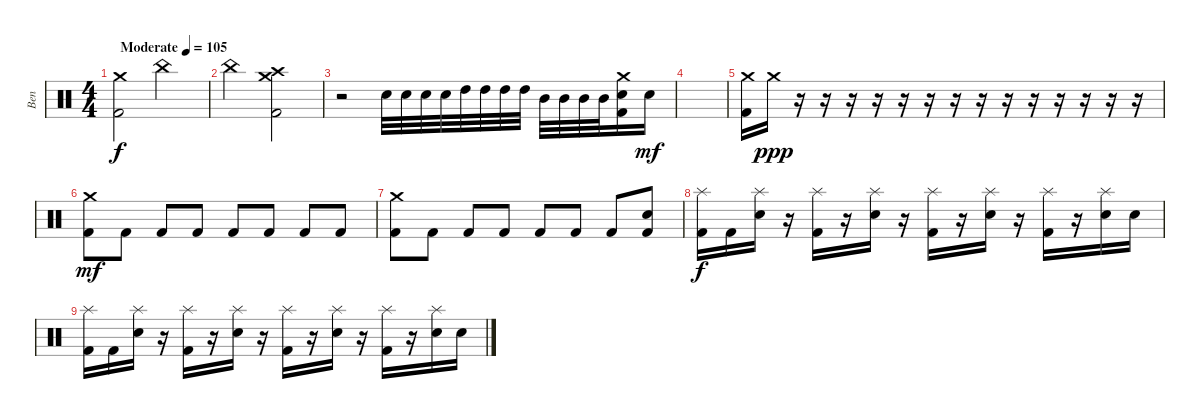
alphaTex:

\track ("Ben" "Ben") {instrument percussion}
\staff {score}
\articulation defaults
\ts (4 4)
\tempo (105 "Moderate")
\clef neutral
\ks c
("Crash medium (hit)" "Kick (hit) 2").2{dy f} "China (hit)".2 |
"China (hit)".2 ("Crash high (hit)" "Crash medium (hit)" "Kick (hit) 2").2 |
r.2 "Snare (hit) 2".32 "Snare (hit) 2".32 "Snare (hit) 2".32 "Snare (hit) 2".32 "High Tom (hit)".32 "High Tom (hit)".32 "High Tom (hit)".32 "High Tom (hit)".32 "Mid Tom (hit)".32 "Mid Tom (hit)".32 "Mid Tom (hit)".32 "Mid Tom (hit)".32 ("Crash medium (hit)" "Snare (hit) 2" "Kick (hit) 2").16 "Snare (hit)".16{dy mf} |
|
("Crash medium (hit)" "Kick (hit) 2").16 "Crash medium (hit)".16{dy ppp} r.16 r.16 r.16 r.16 r.16 r.16 r.16 r.16 r.16 r.16 r.16 r.16 r.16 r.16 |
("Crash medium (hit)" "Kick (hit) 2").8{dy mf} "Kick (hit) 2".8 "Kick (hit) 2".8 "Kick (hit) 2".8 "Kick (hit) 2".8 "Kick (hit) 2".8 "Kick (hit) 2".8 "Kick (hit) 2".8 |
("Crash medium (hit)" "Kick (hit) 2").8 "Kick (hit) 2".8 "Kick (hit) 2".8 "Kick (hit) 2".8 "Kick (hit) 2".8 "Kick (hit) 2".8 "Kick (hit) 2".8 ("Snare (hit) 2" "Kick (hit) 2").8 |
("Splash (hit)" "Kick (hit) 2").16{dy f} "Kick (hit) 2".16 ("Splash (hit)" "Snare (hit) 2").16 r.16 ("Splash (hit)" "Kick (hit) 2").16 r.16 ("Splash (hit)" "Snare (hit) 2").16 r.16 ("Splash (hit)" "Kick (hit) 2").16 r.16 ("Splash (hit)" "Snare (hit) 2").16 r.16 ("Splash (hit)" "Kick (hit) 2").16 r.16 ("Splash (hit)" "Snare (hit) 2").16 "Snare (hit) 2".16 |
("Splash (hit)" "Kick (hit) 2").16 "Kick (hit) 2".16 ("Splash (hit)" "Snare (hit) 2").16 r.16 ("Splash (hit)" "Kick (hit) 2").16 r.16 ("Splash (hit)" "Snare (hit) 2").16 r.16 ("Splash (hit)" "Kick (hit) 2").16 r.16 ("Splash (hit)" "Snare (hit) 2").16 r.16 ("Splash (hit)" "Kick (hit) 2").16 r.16 ("Splash (hit)" "Snare (hit) 2").16 "Snare (hit) 2".16
